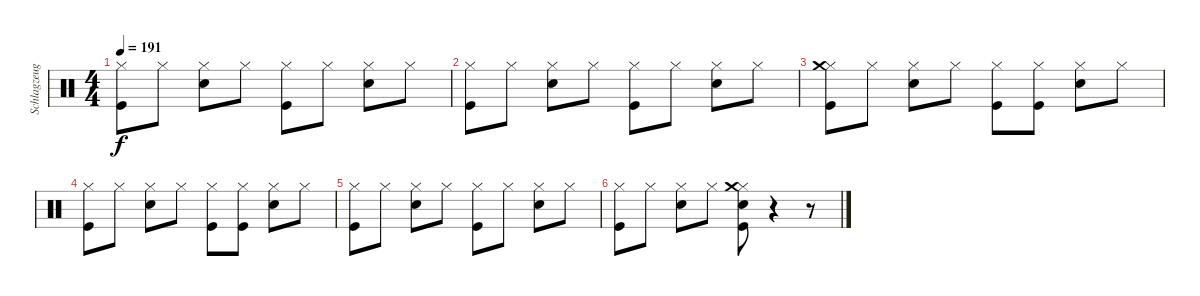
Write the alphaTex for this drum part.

\track ("Schlagzeug - Bela B." "Schlagzeug") {instrument percussion}
\staff {score}
\articulation defaults
\ts (4 4)
\tempo 191
\clef neutral
\ks c
("Kick (hit)" "Hi-Hat (closed)").8{dy f} "Hi-Hat (closed)".8 ("Hi-Hat (closed)" "Electric Snare (hit)").8 "Hi-Hat (closed)".8 ("Hi-Hat (closed)" "Kick (hit)").8 "Hi-Hat (closed)".8 ("Hi-Hat (closed)" "Electric Snare (hit)").8 "Hi-Hat (closed)".8 |
("Kick (hit)" "Hi-Hat (closed)").8 "Hi-Hat (closed)".8 ("Hi-Hat (closed)" "Electric Snare (hit)").8 "Hi-Hat (closed)".8 ("Hi-Hat (closed)" "Kick (hit)").8 "Hi-Hat (closed)".8 ("Hi-Hat (closed)" "Electric Snare (hit)").8 "Hi-Hat (closed)".8 |
("Kick (hit)" "Hi-Hat (closed)" "Crash medium (hit)").8 "Hi-Hat (closed)".8 ("Hi-Hat (closed)" "Electric Snare (hit)").8 "Hi-Hat (closed)".8 ("Hi-Hat (closed)" "Kick (hit)").8 ("Hi-Hat (closed)" "Kick (hit)").8 ("Hi-Hat (closed)" "Electric Snare (hit)").8 "Hi-Hat (closed)".8 |
("Kick (hit)" "Hi-Hat (closed)").8 "Hi-Hat (closed)".8 ("Hi-Hat (closed)" "Electric Snare (hit)").8 "Hi-Hat (closed)".8 ("Hi-Hat (closed)" "Kick (hit)").8 ("Hi-Hat (closed)" "Kick (hit)").8 ("Hi-Hat (closed)" "Electric Snare (hit)").8 "Hi-Hat (closed)".8 |
("Kick (hit)" "Hi-Hat (closed)").8 "Hi-Hat (closed)".8 ("Hi-Hat (closed)" "Electric Snare (hit)").8 "Hi-Hat (closed)".8 ("Hi-Hat (closed)" "Kick (hit)").8 "Hi-Hat (closed)".8 ("Hi-Hat (closed)" "Electric Snare (hit)").8 "Hi-Hat (closed)".8 |
("Kick (hit)" "Hi-Hat (closed)").8 "Hi-Hat (closed)".8 ("Hi-Hat (closed)" "Electric Snare (hit)").8 "Hi-Hat (closed)".8 ("Hi-Hat (closed)" "Kick (hit)" "Electric Snare (hit)" "Crash medium (hit)").8 r.4 r.8
